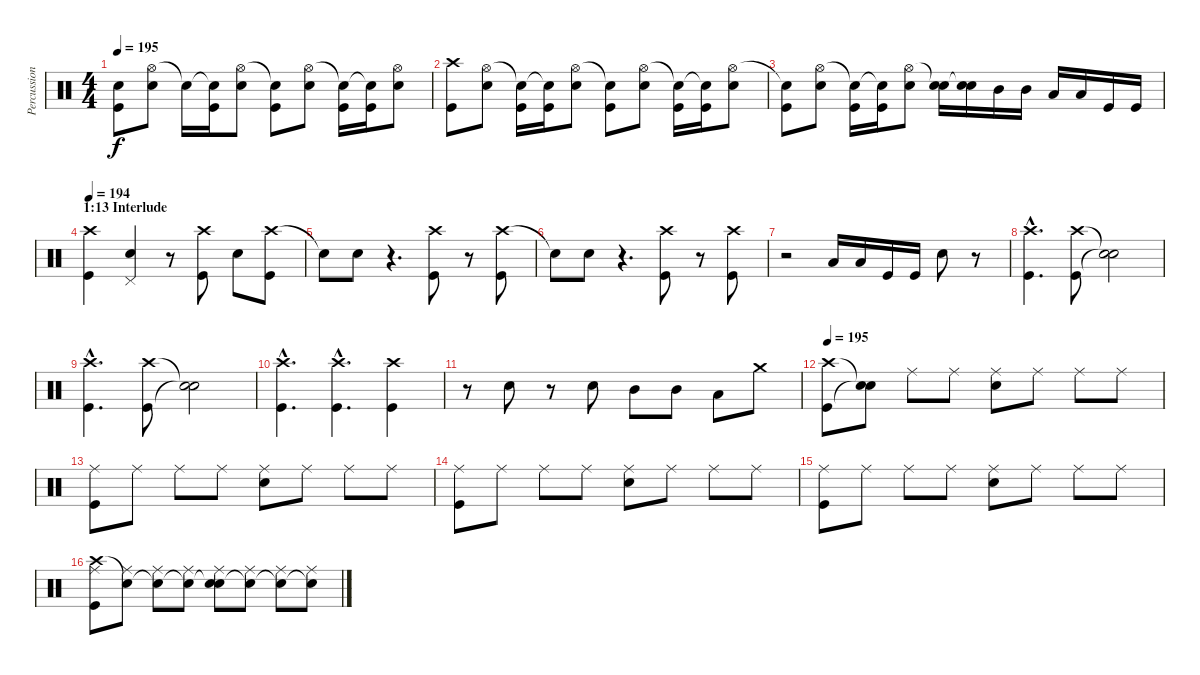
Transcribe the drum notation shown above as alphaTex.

\track ("Percussion" "Percussion") {instrument percussion}
\staff {score}
\articulation defaults
\ts (4 4)
\tempo 195
\clef neutral
\ks c
("Snare (hit)"{t} "Kick (hit)").8{dy f} ("Hi-Hat (open)" "Snare (hit) 2").8 "Snare (hit)"{t}.16 ("Snare (hit)"{t} "Kick (hit)").16 ("Hi-Hat (open)" "Snare (hit) 2").8 ("Snare (hit)"{t} "Kick (hit)").8 ("Hi-Hat (open)" "Snare (hit) 2").8 ("Snare (hit)"{t} "Kick (hit)").16 ("Snare (hit)"{t} "Kick (hit)").16 ("Hi-Hat (open)" "Snare (hit) 2").8 |
("Crash high (hit)" "Kick (hit)").8 ("Hi-Hat (open)" "Snare (hit) 2").8 ("Snare (hit)"{t} "Kick (hit)").16 ("Snare (hit)"{t} "Kick (hit)").16 ("Hi-Hat (open)" "Snare (hit) 2").8 ("Snare (hit)"{t} "Kick (hit)").8 ("Hi-Hat (open)" "Snare (hit) 2").8 ("Snare (hit)"{t} "Kick (hit)").16 ("Snare (hit)"{t} "Kick (hit)").16 ("Hi-Hat (open)" "Snare (hit) 2").8 |
("Snare (hit)"{t} "Kick (hit)").8 ("Hi-Hat (open)" "Snare (hit) 2").8 ("Snare (hit)"{t} "Kick (hit)").16 ("Snare (hit)"{t} "Kick (hit)").16 ("Hi-Hat (open)" "Snare (hit) 2").8 ("Snare (hit)"{t} "Snare (hit) 2").16 ("Snare (hit)"{t} "Snare (hit) 2").16 "Mid Tom (hit)".16 "Mid Tom (hit)".16 "Low Tom (hit)".16 "Low Tom (hit)".16 "Kick (hit)".16 "Kick (hit)".16 |
\section ("" "1:13 Interlude")
\tempo 194
("Crash high (hit)" "Kick (hit)").4 ("Snare (hit)"{x} "Pedal Hi-Hat (hit)").4 r.8 ("Crash high (hit)" "Kick (hit)").8 "Snare (hit)"{x}.8 ("Crash high (hit)" "Kick (hit)").8 |
"Snare (hit)"{t}.8 "Snare (hit)"{x}.8 r.4{d} ("Crash high (hit)" "Kick (hit)").8 r.8 ("Crash high (hit)" "Kick (hit)").8 |
"Snare (hit)"{t}.8 "Snare (hit)"{x}.8 r.4{d} ("Crash high (hit)" "Kick (hit)").8 r.8 ("Crash high (hit)" "Kick (hit)").8 |
r.2 "Low Tom (hit)".16 "Low Tom (hit)".16 "Kick (hit)".16 "Kick (hit)".16 "Snare (hit) 2".8 r.8 |
("Crash high (hit)"{hac} "Kick (hit)"{hac}).4{d} ("Crash high (hit)" "Kick (hit)").8 ("Snare (hit)"{t} "Snare (hit)"{t}).2 |
("Crash high (hit)"{hac} "Kick (hit)"{hac}).4{d} ("Crash high (hit)" "Kick (hit)").8 ("Snare (hit)"{t} "Snare (hit)"{t}).2 |
("Crash high (hit)"{hac} "Kick (hit)"{hac}).4{d} ("Crash high (hit)"{hac} "Kick (hit)"{hac}).4{d} ("Crash high (hit)" "Kick (hit)").4 |
r.8 "Snare (hit) 2".8 r.8 "Snare (hit) 2".8 "Mid Tom (hit)".8 "Mid Tom (hit)".8 "Low Tom (hit)".8 "Crash medium (hit)".8 |
\tempo 195
("Crash high (hit)" "Kick (hit)").8 ("Snare (hit)"{t} "Snare (hit)"{t}).8 "Ride (middle)".8 "Ride (middle)".8 ("Ride (middle)" "Snare (hit) 2").8 "Ride (middle)".8 "Ride (middle)".8 "Ride (middle)".8 |
("Ride (middle)" "Kick (hit)").8 "Ride (middle)".8 "Ride (middle)".8 "Ride (middle)".8 ("Ride (middle)" "Snare (hit) 2").8 "Ride (middle)".8 "Ride (middle)".8 "Ride (middle)".8 |
("Ride (middle)" "Kick (hit)").8 "Ride (middle)".8 "Ride (middle)".8 "Ride (middle)".8 ("Ride (middle)" "Snare (hit) 2").8 "Ride (middle)".8 "Ride (middle)".8 "Ride (middle)".8 |
("Ride (middle)" "Kick (hit)").8 "Ride (middle)".8 "Ride (middle)".8 "Ride (middle)".8 ("Ride (middle)" "Snare (hit) 2").8 "Ride (middle)".8 "Ride (middle)".8 "Ride (middle)".8 |
("Crash high (hit)" "Ride (middle)" "Kick (hit)").8 ("Snare (hit)"{t} "Ride (middle)").8 ("Snare (hit)"{t} "Ride (middle)").8 ("Snare (hit)"{t} "Ride (middle)").8 ("Snare (hit)"{t} "Ride (middle)" "Snare (hit) 2").8 ("Snare (hit)"{t} "Ride (middle)").8 ("Snare (hit)"{t} "Ride (middle)").8 ("Snare (hit)"{t} "Ride (middle)").8
